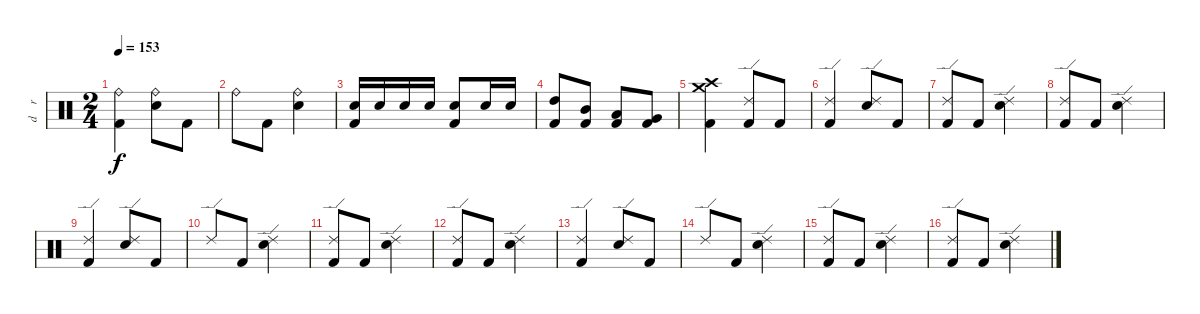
\track ("d    r     u    m    s" "d    r    ") {instrument percussion}
\staff {score}
\articulation defaults
\ts (2 4)
\tempo 153
\clef neutral
\ks c
("Ride (bell)" "Kick (hit) 2").4{dy f} ("Ride (bell)" "Electric Snare (hit)").8 "Kick (hit) 2".8 |
"Ride (bell)".8 "Kick (hit) 2".8 ("Ride (bell)" "Electric Snare (hit)").4 |
("Electric Snare (hit)" "Kick (hit) 2").16 "Electric Snare (hit)".16 "Electric Snare (hit)".16 "Electric Snare (hit)".16 ("Electric Snare (hit)" "Kick (hit) 2").8 "Electric Snare (hit)".16 "Electric Snare (hit)".16 |
("High Tom (hit)" "Kick (hit) 2").8 ("Mid Tom (hit)" "Kick (hit) 2").8 ("Low Tom (hit)" "Kick (hit) 2").8 ("Very Low Tom (hit)" "Kick (hit) 2").8 |
("Crash high (hit)" "Crash medium (hit)" "Kick (hit) 2").4 ("Ride (edge) 2" "Kick (hit) 2").8 "Kick (hit) 2".8 |
("Ride (edge) 2" "Kick (hit) 2").4 ("Ride (edge) 2" "Electric Snare (hit)").8 "Kick (hit) 2".8 |
("Ride (edge) 2" "Kick (hit) 2").8 "Kick (hit) 2".8 ("Ride (edge) 2" "Electric Snare (hit)").4 |
("Ride (edge) 2" "Kick (hit) 2").8 "Kick (hit) 2".8 ("Ride (edge) 2" "Electric Snare (hit)").4 |
("Ride (edge) 2" "Kick (hit) 2").4 ("Ride (edge) 2" "Electric Snare (hit)").8 "Kick (hit) 2".8 |
"Ride (edge) 2".8 "Kick (hit) 2".8 ("Ride (edge) 2" "Electric Snare (hit)").4 |
("Ride (edge) 2" "Kick (hit) 2").8 "Kick (hit) 2".8 ("Ride (edge) 2" "Electric Snare (hit)").4 |
("Ride (edge) 2" "Kick (hit) 2").8 "Kick (hit) 2".8 ("Ride (edge) 2" "Electric Snare (hit)").4 |
("Ride (edge) 2" "Kick (hit) 2").4 ("Ride (edge) 2" "Electric Snare (hit)").8 "Kick (hit) 2".8 |
"Ride (edge) 2".8 "Kick (hit) 2".8 ("Ride (edge) 2" "Electric Snare (hit)").4 |
("Ride (edge) 2" "Kick (hit) 2").8 "Kick (hit) 2".8 ("Ride (edge) 2" "Electric Snare (hit)").4 |
("Ride (edge) 2" "Kick (hit) 2").8 "Kick (hit) 2".8 ("Ride (edge) 2" "Electric Snare (hit)").4
